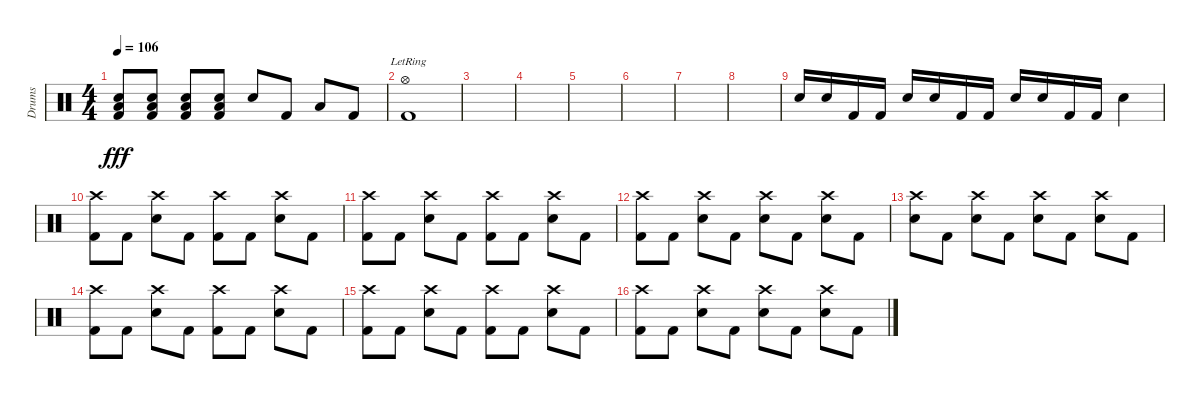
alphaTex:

\track ("Drums" "Drums") {instrument percussion}
\staff {score}
\articulation defaults
\ts (4 4)
\tempo 106
\clef neutral
\ks c
("Snare (hit) 2" "Low Tom (hit)" "Kick (hit) 2").8{dy fff} ("Snare (hit) 2" "Low Tom (hit)" "Kick (hit) 2").8 ("Snare (hit) 2" "Low Tom (hit)" "Kick (hit) 2").8 ("Snare (hit) 2" "Low Tom (hit)" "Kick (hit) 2").8 "Snare (hit) 2".8 "Kick (hit) 2".8 "Low Tom (hit)".8 "Kick (hit) 2".8 |
("Hi-Hat (open)"{lr} "Kick (hit) 2").1 |
|
|
|
|
|
|
"Snare (hit) 2".16 "Snare (hit) 2".16 "Kick (hit) 2".16 "Kick (hit) 2".16 "Snare (hit) 2".16 "Snare (hit) 2".16 "Kick (hit) 2".16 "Kick (hit) 2".16 "Snare (hit) 2".16 "Snare (hit) 2".16 "Kick (hit) 2".16 "Kick (hit) 2".16 "Snare (hit) 2".4 |
("Crash high (hit)" "Kick (hit) 2").8 "Kick (hit) 2".8 ("Crash high (hit)" "Snare (hit) 2").8 "Kick (hit) 2".8 ("Crash high (hit)" "Kick (hit) 2").8 "Kick (hit) 2".8 ("Crash high (hit)" "Snare (hit) 2").8 "Kick (hit) 2".8 |
("Crash high (hit)" "Kick (hit) 2").8 "Kick (hit) 2".8 ("Crash high (hit)" "Snare (hit) 2").8 "Kick (hit) 2".8 ("Crash high (hit)" "Kick (hit) 2").8 "Kick (hit) 2".8 ("Crash high (hit)" "Snare (hit) 2").8 "Kick (hit) 2".8 |
("Crash high (hit)" "Kick (hit) 2").8 "Kick (hit) 2".8 ("Crash high (hit)" "Snare (hit) 2").8 "Kick (hit) 2".8 ("Crash high (hit)" "Snare (hit) 2").8 "Kick (hit) 2".8 ("Crash high (hit)" "Snare (hit) 2").8 "Kick (hit) 2".8 |
("Crash high (hit)" "Snare (hit) 2").8 "Kick (hit) 2".8 ("Crash high (hit)" "Snare (hit) 2").8 "Kick (hit) 2".8 ("Crash high (hit)" "Snare (hit) 2").8 "Kick (hit) 2".8 ("Crash high (hit)" "Snare (hit) 2").8 "Kick (hit) 2".8 |
("Crash high (hit)" "Kick (hit) 2").8 "Kick (hit) 2".8 ("Crash high (hit)" "Snare (hit) 2").8 "Kick (hit) 2".8 ("Crash high (hit)" "Kick (hit) 2").8 "Kick (hit) 2".8 ("Crash high (hit)" "Snare (hit) 2").8 "Kick (hit) 2".8 |
("Crash high (hit)" "Kick (hit) 2").8 "Kick (hit) 2".8 ("Crash high (hit)" "Snare (hit) 2").8 "Kick (hit) 2".8 ("Crash high (hit)" "Kick (hit) 2").8 "Kick (hit) 2".8 ("Crash high (hit)" "Snare (hit) 2").8 "Kick (hit) 2".8 |
("Crash high (hit)" "Kick (hit) 2").8 "Kick (hit) 2".8 ("Crash high (hit)" "Snare (hit) 2").8 "Kick (hit) 2".8 ("Crash high (hit)" "Snare (hit) 2").8 "Kick (hit) 2".8 ("Crash high (hit)" "Snare (hit) 2").8 "Kick (hit) 2".8
